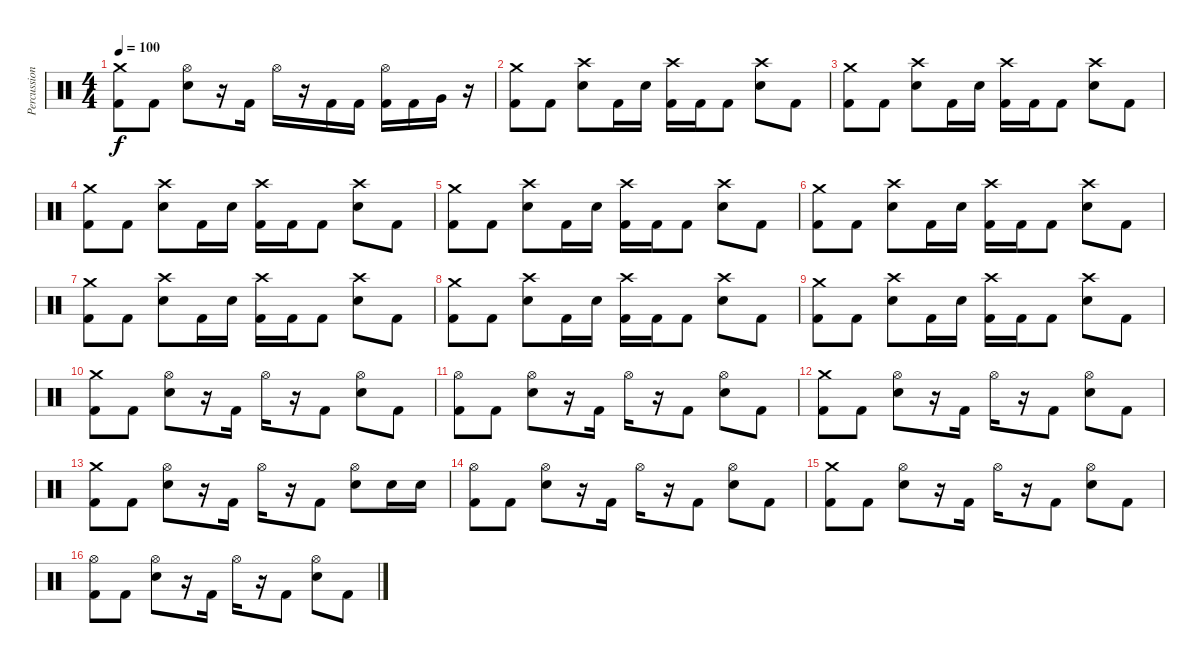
\track ("Percussion" "Percussion") {instrument percussion}
\staff {score}
\articulation defaults
\ts (4 4)
\tempo 100
\clef neutral
\ks c
("Crash medium (hit)" "Kick (hit) 2").8{dy f} "Kick (hit) 2".8 ("Hi-Hat (open)" "Electric Snare (hit)").8 r.16 "Kick (hit) 2".16 "Hi-Hat (open)".16 r.16 "Kick (hit) 2".16 "Kick (hit) 2".16 ("Hi-Hat (open)" "Kick (hit) 2").16 "Kick (hit) 2".16 "Very Low Tom (hit)".16 r.16 |
("Crash medium (hit)" "Kick (hit) 2").8 "Kick (hit) 2".8 ("Crash high (hit)" "Electric Snare (hit)").8 "Kick (hit) 2".16 "Electric Snare (hit)".16 ("Crash high (hit)" "Kick (hit) 2").16 "Kick (hit) 2".16 "Kick (hit) 2".8 ("Crash high (hit)" "Electric Snare (hit)").8 "Kick (hit) 2".8 |
("Crash medium (hit)" "Kick (hit) 2").8 "Kick (hit) 2".8 ("Crash high (hit)" "Electric Snare (hit)").8 "Kick (hit) 2".16 "Electric Snare (hit)".16 ("Crash high (hit)" "Kick (hit) 2").16 "Kick (hit) 2".16 "Kick (hit) 2".8 ("Crash high (hit)" "Electric Snare (hit)").8 "Kick (hit) 2".8 |
("Crash medium (hit)" "Kick (hit) 2").8 "Kick (hit) 2".8 ("Crash high (hit)" "Electric Snare (hit)").8 "Kick (hit) 2".16 "Electric Snare (hit)".16 ("Crash high (hit)" "Kick (hit) 2").16 "Kick (hit) 2".16 "Kick (hit) 2".8 ("Crash high (hit)" "Electric Snare (hit)").8 "Kick (hit) 2".8 |
("Crash medium (hit)" "Kick (hit) 2").8 "Kick (hit) 2".8 ("Crash high (hit)" "Electric Snare (hit)").8 "Kick (hit) 2".16 "Electric Snare (hit)".16 ("Crash high (hit)" "Kick (hit) 2").16 "Kick (hit) 2".16 "Kick (hit) 2".8 ("Crash high (hit)" "Electric Snare (hit)").8 "Kick (hit) 2".8 |
("Crash medium (hit)" "Kick (hit) 2").8 "Kick (hit) 2".8 ("Crash high (hit)" "Electric Snare (hit)").8 "Kick (hit) 2".16 "Electric Snare (hit)".16 ("Crash high (hit)" "Kick (hit) 2").16 "Kick (hit) 2".16 "Kick (hit) 2".8 ("Crash high (hit)" "Electric Snare (hit)").8 "Kick (hit) 2".8 |
("Crash medium (hit)" "Kick (hit) 2").8 "Kick (hit) 2".8 ("Crash high (hit)" "Electric Snare (hit)").8 "Kick (hit) 2".16 "Electric Snare (hit)".16 ("Crash high (hit)" "Kick (hit) 2").16 "Kick (hit) 2".16 "Kick (hit) 2".8 ("Crash high (hit)" "Electric Snare (hit)").8 "Kick (hit) 2".8 |
("Crash medium (hit)" "Kick (hit) 2").8 "Kick (hit) 2".8 ("Crash high (hit)" "Electric Snare (hit)").8 "Kick (hit) 2".16 "Electric Snare (hit)".16 ("Crash high (hit)" "Kick (hit) 2").16 "Kick (hit) 2".16 "Kick (hit) 2".8 ("Crash high (hit)" "Electric Snare (hit)").8 "Kick (hit) 2".8 |
("Crash medium (hit)" "Kick (hit) 2").8 "Kick (hit) 2".8 ("Crash high (hit)" "Electric Snare (hit)").8 "Kick (hit) 2".16 "Electric Snare (hit)".16 ("Crash high (hit)" "Kick (hit) 2").16 "Kick (hit) 2".16 "Kick (hit) 2".8 ("Crash high (hit)" "Electric Snare (hit)").8 "Kick (hit) 2".8 |
("Crash medium (hit)" "Kick (hit) 2").8 "Kick (hit) 2".8 ("Hi-Hat (open)" "Electric Snare (hit)").8 r.16 "Kick (hit) 2".16 "Hi-Hat (open)".16 r.16 "Kick (hit) 2".8 ("Hi-Hat (open)" "Electric Snare (hit)").8 "Kick (hit) 2".8 |
("Hi-Hat (open)" "Kick (hit) 2").8 "Kick (hit) 2".8 ("Hi-Hat (open)" "Electric Snare (hit)").8 r.16 "Kick (hit) 2".16 "Hi-Hat (open)".16 r.16 "Kick (hit) 2".8 ("Hi-Hat (open)" "Electric Snare (hit)").8 "Kick (hit) 2".8 |
("Crash medium (hit)" "Kick (hit) 2").8 "Kick (hit) 2".8 ("Hi-Hat (open)" "Electric Snare (hit)").8 r.16 "Kick (hit) 2".16 "Hi-Hat (open)".16 r.16 "Kick (hit) 2".8 ("Hi-Hat (open)" "Electric Snare (hit)").8 "Kick (hit) 2".8 |
("Crash medium (hit)" "Kick (hit) 2").8 "Kick (hit) 2".8 ("Hi-Hat (open)" "Electric Snare (hit)").8 r.16 "Kick (hit) 2".16 "Hi-Hat (open)".16 r.16 "Kick (hit) 2".8 ("Hi-Hat (open)" "Electric Snare (hit)").8 "Electric Snare (hit)".16 "Snare (hit) 2".16 |
("Hi-Hat (open)" "Kick (hit) 2").8 "Kick (hit) 2".8 ("Hi-Hat (open)" "Electric Snare (hit)").8 r.16 "Kick (hit) 2".16 "Hi-Hat (open)".16 r.16 "Kick (hit) 2".8 ("Hi-Hat (open)" "Electric Snare (hit)").8 "Kick (hit) 2".8 |
("Crash medium (hit)" "Kick (hit) 2").8 "Kick (hit) 2".8 ("Hi-Hat (open)" "Electric Snare (hit)").8 r.16 "Kick (hit) 2".16 "Hi-Hat (open)".16 r.16 "Kick (hit) 2".8 ("Hi-Hat (open)" "Electric Snare (hit)").8 "Kick (hit) 2".8 |
("Hi-Hat (open)" "Kick (hit) 2").8 "Kick (hit) 2".8 ("Hi-Hat (open)" "Electric Snare (hit)").8 r.16 "Kick (hit) 2".16 "Hi-Hat (open)".16 r.16 "Kick (hit) 2".8 ("Hi-Hat (open)" "Electric Snare (hit)").8 "Kick (hit) 2".8
